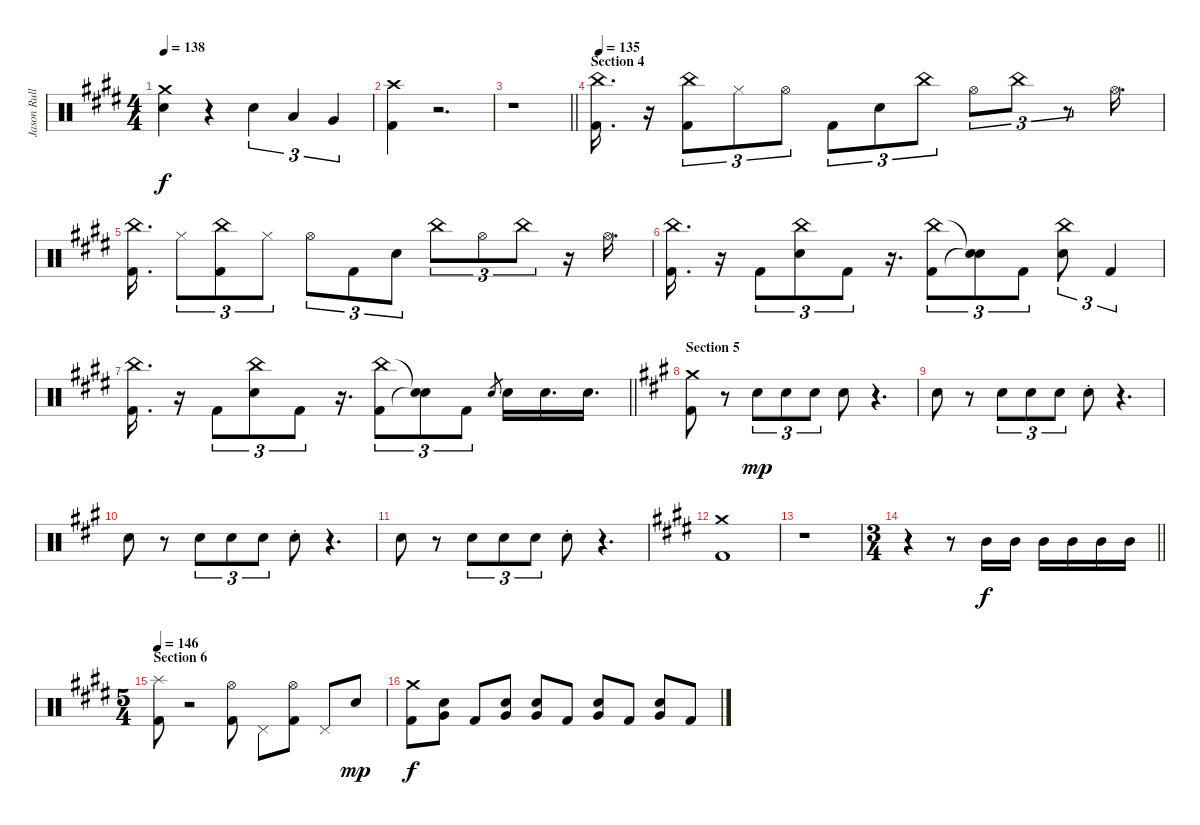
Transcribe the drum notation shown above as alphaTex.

\track ("Jason Rullo (drums)" "Jason Rull") {instrument percussion}
\staff {score}
\articulation defaults
\ts (4 4)
\tempo 138
\clef neutral
\ks c#minor
("Crash medium (hit)" "Electric Snare (hit)").4{dy f} r.4 "Electric Snare (hit)".4{tu (3 2)} "Low Tom (hit)".4{tu (3 2)} "Very Low Tom (hit)".4{tu (3 2)} |
("Kick (hit) 2" "Crash high (hit)").4 r.2{d} |
\barLineRight lightlight
r.1 |
\section ("" "Section 4")
\tempo 135
("China (hit)" "Kick (hit) 2").16{d} r.16 ("China (hit)" "Kick (hit) 2").8{tu (3 2)} "Hi-Hat (closed)".8{tu (3 2)} "Hi-Hat (open)".8{tu (3 2)} "Kick (hit) 2".8{tu (3 2)} "Electric Snare (hit)".8{tu (3 2)} "China (hit)".8{tu (3 2)} "Hi-Hat (open)".8{tu (3 2)} "China (hit)".8{tu (3 2)} r.8{tu (3 2)} "Hi-Hat (open)".16{d} |
("China (hit)" "Kick (hit) 2").16{d} "Hi-Hat (closed)".8{tu (3 2)} ("China (hit)" "Kick (hit) 2").8{tu (3 2)} "Hi-Hat (closed)".8{tu (3 2)} "Hi-Hat (open)".8{tu (3 2)} "Kick (hit) 2".8{tu (3 2)} "Electric Snare (hit)".8{tu (3 2)} "China (hit)".8{tu (3 2)} "Hi-Hat (open)".8{tu (3 2)} "China (hit)".8{tu (3 2)} r.16 "Hi-Hat (open)".16{d} |
("China (hit)" "Kick (hit) 2").16{d} r.16 "Kick (hit) 2".8{tu (3 2)} ("China (hit)" "Electric Snare (hit)").8{tu (3 2)} "Kick (hit) 2".8{tu (3 2)} r.16{d} ("China (hit)" "Kick (hit) 2").8{tu (3 2)} ("Snare (hit)"{t} "Snare (hit)"{t}).8{tu (3 2)} "Kick (hit) 2".8{tu (3 2)} ("China (hit)" "Electric Snare (hit)").8{tu (3 2)} "Kick (hit) 2".4{tu (3 2)} |
\barLineRight lightlight
("China (hit)" "Kick (hit) 2").16{d} r.16 "Kick (hit) 2".8{tu (3 2)} ("China (hit)" "Electric Snare (hit)").8{tu (3 2)} "Kick (hit) 2".8{tu (3 2)} r.16{d} ("China (hit)" "Kick (hit) 2").8{tu (3 2)} ("Snare (hit)"{t} "Snare (hit)"{t}).8{tu (3 2)} "Kick (hit) 2".8{tu (3 2)} "Electric Snare (hit)".8{gr} "Electric Snare (hit)".16 "Electric Snare (hit)".16{d} "Electric Snare (hit)".16{d} |
\section ("" "Section 5")
\ks f#minor
("Crash medium (hit)" "Kick (hit) 2").8 r.8 "Electric Snare (hit)".8{tu (3 2) dy mp} "Electric Snare (hit)".8{tu (3 2)} "Electric Snare (hit)".8{tu (3 2)} "Electric Snare (hit)".8 r.4{d} |
"Electric Snare (hit)".8 r.8 "Electric Snare (hit)".8{tu (3 2)} "Electric Snare (hit)".8{tu (3 2)} "Electric Snare (hit)".8{tu (3 2)} "Electric Snare (hit)"{st}.8 r.4{d} |
"Electric Snare (hit)".8 r.8 "Electric Snare (hit)".8{tu (3 2)} "Electric Snare (hit)".8{tu (3 2)} "Electric Snare (hit)".8{tu (3 2)} "Electric Snare (hit)"{st}.8 r.4{d} |
"Electric Snare (hit)".8 r.8 "Electric Snare (hit)".8{tu (3 2)} "Electric Snare (hit)".8{tu (3 2)} "Electric Snare (hit)".8{tu (3 2)} "Electric Snare (hit)"{st}.8 r.4{d} |
\ks c#minor
("Crash medium (hit)" "Kick (hit) 2").1 |
r.1 |
\ts (3 4)
\barLineRight lightlight
r.4 r.8 "Mid Tom (hit)".16{dy f volume 4} "Mid Tom (hit)".16{volume 6} "Mid Tom (hit)".16{volume 8} "Mid Tom (hit)".16{volume 10} "Mid Tom (hit)".16{volume 12} "Mid Tom (hit)".16{volume 14} |
\ts (5 4)
\section ("" "Section 6")
\tempo 146
("Splash (hit)" "Kick (hit) 2").8{volume 16} r.2 ("Hi-Hat (open)" "Kick (hit) 2").8 "Pedal Hi-Hat (hit)".8 ("Hi-Hat (open)" "Kick (hit) 2").8 "Pedal Hi-Hat (hit)".8 "Electric Snare (hit)".8{dy mp} |
("Crash medium (hit)" "Kick (hit) 2").8{dy f} ("Very Low Tom (hit)" "Electric Snare (hit)").8 "Kick (hit) 2".8 ("Very Low Tom (hit)" "Electric Snare (hit)").8 ("Very Low Tom (hit)" "Electric Snare (hit)").8 "Kick (hit) 2".8 ("Very Low Tom (hit)" "Electric Snare (hit)").8 "Kick (hit) 2".8 ("Very Low Tom (hit)" "Electric Snare (hit)").8 "Kick (hit) 2".8
